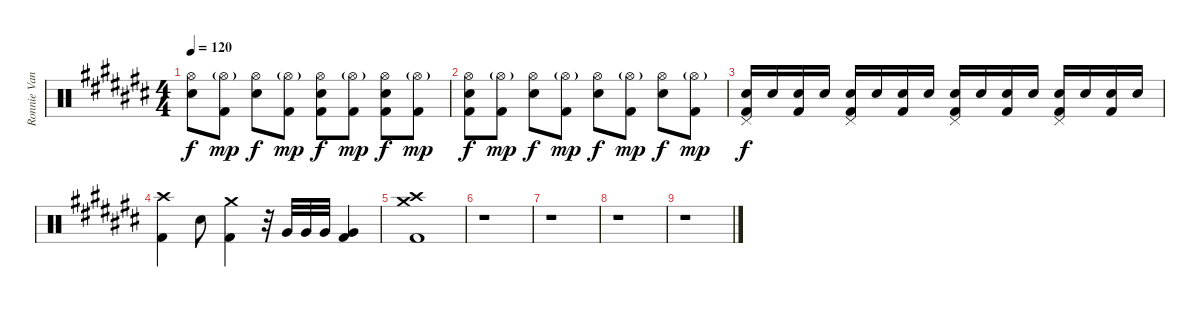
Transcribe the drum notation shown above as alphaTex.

\track ("Ronnie Vannucci Jr. drums" "Ronnie Van") {instrument percussion}
\staff {score}
\articulation defaults
\ts (4 4)
\tempo 120
\clef neutral
\ks c#
("Hi-Hat (open)" "Electric Snare (hit)").8{dy f} ("Hi-Hat (open)"{g} "Kick (hit) 2").8{dy mp} ("Hi-Hat (open)" "Electric Snare (hit)").8{dy f} ("Hi-Hat (open)"{g} "Kick (hit) 2").8{dy mp} ("Hi-Hat (open)" "Electric Snare (hit)" "Kick (hit) 2").8{dy f} ("Hi-Hat (open)"{g} "Kick (hit) 2").8{dy mp} ("Hi-Hat (open)" "Electric Snare (hit)" "Kick (hit) 2").8{dy f} ("Hi-Hat (open)"{g} "Kick (hit) 2").8{dy mp} |
("Hi-Hat (open)" "Electric Snare (hit)" "Kick (hit) 2").8{dy f} ("Hi-Hat (open)"{g} "Kick (hit) 2").8{dy mp} ("Hi-Hat (open)" "Electric Snare (hit)").8{dy f} ("Hi-Hat (open)"{g} "Kick (hit) 2").8{dy mp} ("Hi-Hat (open)" "Electric Snare (hit)").8{dy f} ("Hi-Hat (open)"{g} "Kick (hit) 2").8{dy mp} ("Hi-Hat (open)" "Electric Snare (hit)").8{dy f} ("Hi-Hat (open)"{g} "Kick (hit) 2").8{dy mp} |
("Pedal Hi-Hat (hit)" "Electric Snare (hit)" "Kick (hit) 2").16{dy f} "Electric Snare (hit)".16 ("Electric Snare (hit)" "Kick (hit) 2").16 "Electric Snare (hit)".16 ("Pedal Hi-Hat (hit)" "Electric Snare (hit)" "Kick (hit) 2").16 "Electric Snare (hit)".16 ("Electric Snare (hit)" "Kick (hit) 2").16 "Electric Snare (hit)".16 ("Pedal Hi-Hat (hit)" "Electric Snare (hit)" "Kick (hit) 2").16 "Electric Snare (hit)".16 ("Electric Snare (hit)" "Kick (hit) 2").16 "Electric Snare (hit)".16 ("Pedal Hi-Hat (hit)" "Electric Snare (hit)" "Kick (hit) 2").16 "Electric Snare (hit)".16 ("Electric Snare (hit)" "Kick (hit) 2").16 "Electric Snare (hit)".16 |
("Crash high (hit)" "Kick (hit) 2").4 "Electric Snare (hit)".8 ("Crash medium (hit)" "Kick (hit) 2").4 r.32 "Very Low Tom (hit)".32 "Very Low Tom (hit)".32 "Very Low Tom (hit)".32 ("Very Low Tom (hit)" "Kick (hit) 2").4 |
("Crash high (hit)" "Crash medium (hit)" "Kick (hit) 2").1 |
r.1 |
r.1 |
r.1 |
r.1
